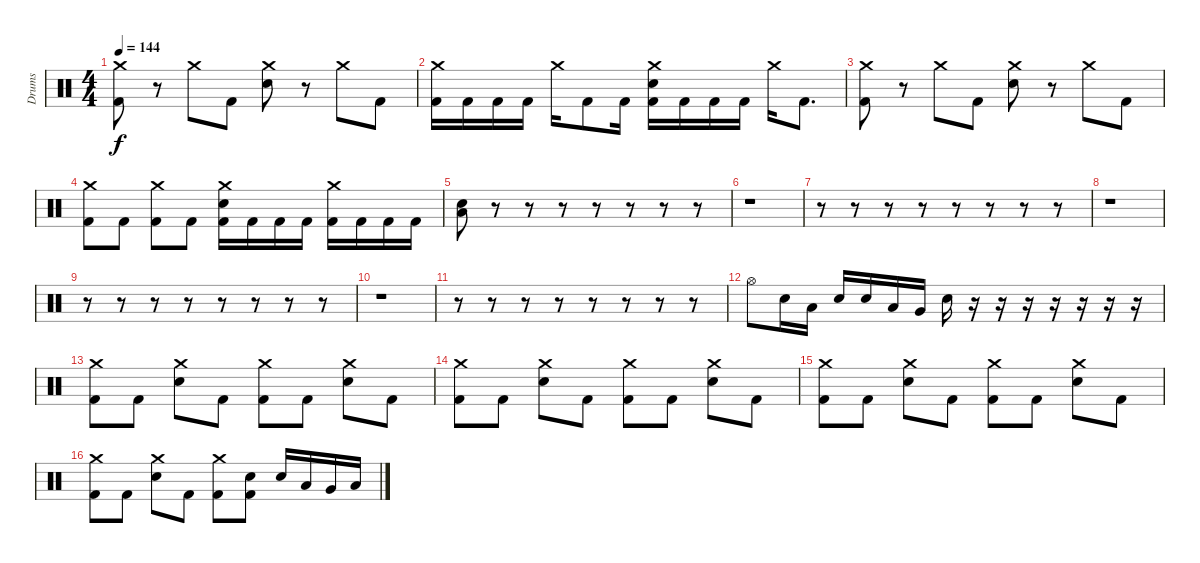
\track ("Drums" "Drums") {instrument percussion}
\staff {score}
\articulation defaults
\ts (4 4)
\tempo 144
\clef neutral
\ks c
("Crash medium (hit)" "Kick (hit) 2").8{dy f} r.8 "Crash medium (hit)".8 "Kick (hit) 2".8 ("Crash medium (hit)" "Electric Snare (hit)").8 r.8 "Crash medium (hit)".8 "Kick (hit) 2".8 |
("Crash medium (hit)" "Kick (hit) 2").16 "Kick (hit) 2".16 "Kick (hit) 2".16 "Kick (hit) 2".16 "Crash medium (hit)".16 "Kick (hit) 2".8 "Kick (hit) 2".16 ("Crash medium (hit)" "Electric Snare (hit)" "Kick (hit) 2").16 "Kick (hit) 2".16 "Kick (hit) 2".16 "Kick (hit) 2".16 "Crash medium (hit)".16 "Kick (hit) 2".8{d} |
("Crash medium (hit)" "Kick (hit) 2").8 r.8 "Crash medium (hit)".8 "Kick (hit) 2".8 ("Crash medium (hit)" "Electric Snare (hit)").8 r.8 "Crash medium (hit)".8 "Kick (hit) 2".8 |
("Crash medium (hit)" "Kick (hit) 2").8 "Kick (hit) 2".8 ("Crash medium (hit)" "Kick (hit) 2").8 "Kick (hit) 2".8 ("Crash medium (hit)" "Electric Snare (hit)" "Kick (hit) 2").16 "Kick (hit) 2".16 "Kick (hit) 2".16 "Kick (hit) 2".16 ("Crash medium (hit)" "Kick (hit) 2").16 "Kick (hit) 2".16 "Kick (hit) 2".16 "Kick (hit) 2".16 |
("Low Floor Tom (hit)" "Electric Snare (hit)").8 r.8 r.8 r.8 r.8 r.8 r.8 r.8 |
r.1 |
r.8 r.8 r.8 r.8 r.8 r.8 r.8 r.8 |
r.1 |
r.8 r.8 r.8 r.8 r.8 r.8 r.8 r.8 |
r.1 |
r.8 r.8 r.8 r.8 r.8 r.8 r.8 r.8 |
"Hi-Hat (open)".8 "Electric Snare (hit)".16 "Low Floor Tom (hit)".16 "Electric Snare (hit)".16 "Electric Snare (hit)".16 "Low Tom (hit)".16 "Very Low Tom (hit)".16 "Electric Snare (hit)".16 r.16 r.16 r.16 r.16 r.16 r.16 r.16 |
("Crash medium (hit)" "Kick (hit) 2").8 "Kick (hit) 2".8 ("Crash medium (hit)" "Electric Snare (hit)").8 "Kick (hit) 2".8 ("Crash medium (hit)" "Kick (hit) 2").8 "Kick (hit) 2".8 ("Crash medium (hit)" "Electric Snare (hit)").8 "Kick (hit) 2".8 |
("Crash medium (hit)" "Kick (hit) 2").8 "Kick (hit) 2".8 ("Crash medium (hit)" "Electric Snare (hit)").8 "Kick (hit) 2".8 ("Crash medium (hit)" "Kick (hit) 2").8 "Kick (hit) 2".8 ("Crash medium (hit)" "Electric Snare (hit)").8 "Kick (hit) 2".8 |
("Crash medium (hit)" "Kick (hit) 2").8 "Kick (hit) 2".8 ("Crash medium (hit)" "Electric Snare (hit)").8 "Kick (hit) 2".8 ("Crash medium (hit)" "Kick (hit) 2").8 "Kick (hit) 2".8 ("Crash medium (hit)" "Electric Snare (hit)").8 "Kick (hit) 2".8 |
("Crash medium (hit)" "Kick (hit) 2").8 "Kick (hit) 2".8 ("Crash medium (hit)" "Electric Snare (hit)").8 "Kick (hit) 2".8 ("Crash medium (hit)" "Kick (hit) 2").8 ("Electric Snare (hit)" "Kick (hit) 2").8 "Electric Snare (hit)".16 "Low Tom (hit)".16 "Very Low Tom (hit)".16 "Low Floor Tom (hit)".16
